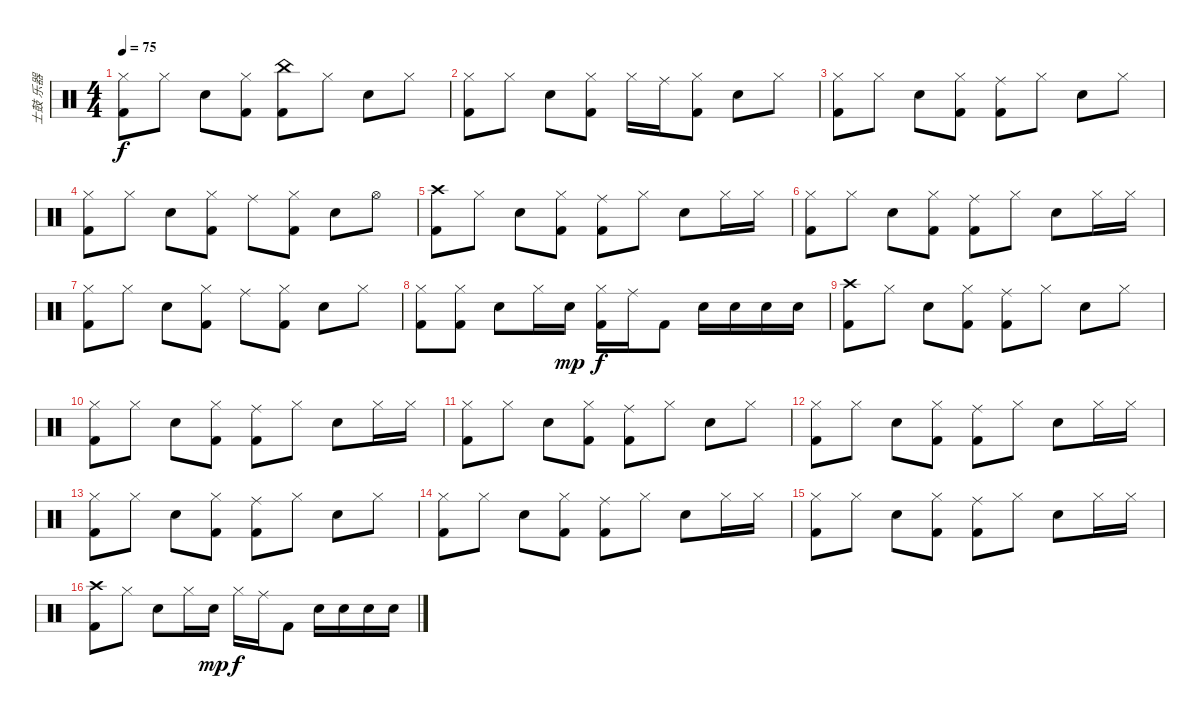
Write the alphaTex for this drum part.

\track ("士鼓 乐器" "士鼓 乐器") {instrument percussion}
\staff {score}
\articulation defaults
\ts (4 4)
\tempo 75
\clef neutral
\ks c
("Hi-Hat (closed)" "Kick (hit) 2").8{dy f} "Hi-Hat (closed)".8 "Snare (hit) 2".8 ("Hi-Hat (closed)" "Kick (hit) 2").8 ("China (hit)" "Kick (hit) 2").8 "Hi-Hat (closed)".8 "Snare (hit) 2".8 "Hi-Hat (closed)".8 |
("Hi-Hat (closed)" "Kick (hit) 2").8 "Hi-Hat (closed)".8 "Snare (hit) 2".8 ("Hi-Hat (closed)" "Kick (hit) 2").8 "Hi-Hat (closed)".16 "Ride (middle)".16 ("Hi-Hat (closed)" "Kick (hit) 2").8 "Snare (hit) 2".8 "Hi-Hat (closed)".8 |
("Hi-Hat (closed)" "Kick (hit) 2").8 "Hi-Hat (closed)".8 "Snare (hit) 2".8 ("Hi-Hat (closed)" "Kick (hit) 2").8 ("Ride (middle)" "Kick (hit) 2").8 "Hi-Hat (closed)".8 "Snare (hit) 2".8 "Hi-Hat (closed)".8 |
("Hi-Hat (closed)" "Kick (hit) 2").8 "Hi-Hat (closed)".8 "Snare (hit) 2".8 ("Hi-Hat (closed)" "Kick (hit) 2").8 "Ride (middle)".8 ("Hi-Hat (closed)" "Kick (hit) 2").8 "Snare (hit) 2".8 "Hi-Hat (open)".8 |
("Crash high (hit)" "Kick (hit) 2").8 "Hi-Hat (closed)".8 "Snare (hit) 2".8 ("Hi-Hat (closed)" "Kick (hit) 2").8 ("Ride (middle)" "Kick (hit) 2").8 "Hi-Hat (closed)".8 "Snare (hit) 2".8 "Hi-Hat (closed)".16 "Hi-Hat (closed)".16 |
("Hi-Hat (closed)" "Kick (hit) 2").8 "Hi-Hat (closed)".8 "Snare (hit) 2".8 ("Hi-Hat (closed)" "Kick (hit) 2").8 ("Ride (middle)" "Kick (hit) 2").8 "Hi-Hat (closed)".8 "Snare (hit) 2".8 "Hi-Hat (closed)".16 "Hi-Hat (closed)".16 |
("Hi-Hat (closed)" "Kick (hit) 2").8 "Hi-Hat (closed)".8 "Snare (hit) 2".8 ("Hi-Hat (closed)" "Kick (hit) 2").8 "Ride (middle)".8 ("Hi-Hat (closed)" "Kick (hit) 2").8 "Snare (hit) 2".8 "Hi-Hat (closed)".8 |
("Hi-Hat (closed)" "Kick (hit) 2").8 ("Hi-Hat (closed)" "Kick (hit) 2").8 "Snare (hit) 2".8 "Hi-Hat (closed)".16 "Snare (hit) 2".16{dy mp} ("Hi-Hat (closed)" "Kick (hit) 2").16{dy f} "Ride (middle)".16 "Kick (hit) 2".8 "Snare (hit) 2".16 "Snare (hit) 2".16 "Snare (hit) 2".16 "Snare (hit) 2".16 |
("Crash high (hit)" "Kick (hit) 2").8 "Hi-Hat (closed)".8 "Snare (hit) 2".8 ("Hi-Hat (closed)" "Kick (hit) 2").8 ("Ride (middle)" "Kick (hit) 2").8 "Hi-Hat (closed)".8 "Snare (hit) 2".8 "Hi-Hat (closed)".8 |
("Hi-Hat (closed)" "Kick (hit) 2").8 "Hi-Hat (closed)".8 "Snare (hit) 2".8 ("Hi-Hat (closed)" "Kick (hit) 2").8 ("Ride (middle)" "Kick (hit) 2").8 "Hi-Hat (closed)".8 "Snare (hit) 2".8 "Hi-Hat (closed)".16 "Hi-Hat (closed)".16 |
("Hi-Hat (closed)" "Kick (hit) 2").8 "Hi-Hat (closed)".8 "Snare (hit) 2".8 ("Hi-Hat (closed)" "Kick (hit) 2").8 ("Ride (middle)" "Kick (hit) 2").8 "Hi-Hat (closed)".8 "Snare (hit) 2".8 "Hi-Hat (closed)".8 |
("Hi-Hat (closed)" "Kick (hit) 2").8 "Hi-Hat (closed)".8 "Snare (hit) 2".8 ("Hi-Hat (closed)" "Kick (hit) 2").8 ("Ride (middle)" "Kick (hit) 2").8 "Hi-Hat (closed)".8 "Snare (hit) 2".8 "Hi-Hat (closed)".16 "Hi-Hat (closed)".16 |
("Hi-Hat (closed)" "Kick (hit) 2").8 "Hi-Hat (closed)".8 "Snare (hit) 2".8 ("Hi-Hat (closed)" "Kick (hit) 2").8 ("Ride (middle)" "Kick (hit) 2").8 "Hi-Hat (closed)".8 "Snare (hit) 2".8 "Hi-Hat (closed)".8 |
("Hi-Hat (closed)" "Kick (hit) 2").8 "Hi-Hat (closed)".8 "Snare (hit) 2".8 ("Hi-Hat (closed)" "Kick (hit) 2").8 ("Ride (middle)" "Kick (hit) 2").8 "Hi-Hat (closed)".8 "Snare (hit) 2".8 "Hi-Hat (closed)".16 "Hi-Hat (closed)".16 |
("Hi-Hat (closed)" "Kick (hit) 2").8 "Hi-Hat (closed)".8 "Snare (hit) 2".8 ("Hi-Hat (closed)" "Kick (hit) 2").8 ("Ride (middle)" "Kick (hit) 2").8 "Hi-Hat (closed)".8 "Snare (hit) 2".8 "Hi-Hat (closed)".16 "Hi-Hat (closed)".16 |
("Crash high (hit)" "Kick (hit) 2").8 "Hi-Hat (closed)".8 "Snare (hit) 2".8 "Hi-Hat (closed)".16 "Snare (hit) 2".16{dy mp} "Hi-Hat (closed)".16{dy f} "Ride (middle)".16 "Kick (hit) 2".8 "Snare (hit) 2".16 "Snare (hit) 2".16 "Snare (hit) 2".16 "Snare (hit) 2".16
